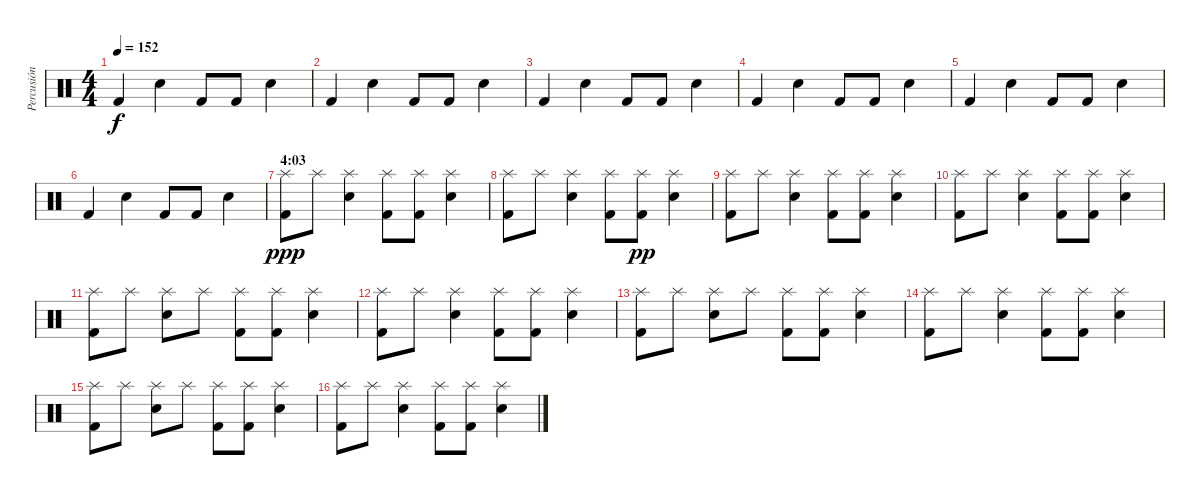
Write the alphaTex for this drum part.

\track ("Percusión" "Percusión") {instrument percussion}
\staff {score}
\articulation defaults
\ts (4 4)
\tempo 152
\clef neutral
\ks c "Kick (hit) 2".4{dy f} "Snare (hit) 2".4 "Kick (hit) 2".8 "Kick (hit) 2".8 "Snare (hit) 2".4
|
"Kick (hit) 2".4 "Snare (hit) 2".4 "Kick (hit) 2".8 "Kick (hit) 2".8 "Snare (hit) 2".4 |
"Kick (hit) 2".4 "Snare (hit) 2".4 "Kick (hit) 2".8 "Kick (hit) 2".8 "Snare (hit) 2".4 |
"Kick (hit) 2".4 "Snare (hit) 2".4 "Kick (hit) 2".8 "Kick (hit) 2".8 "Snare (hit) 2".4 |
"Kick (hit) 2".4 "Snare (hit) 2".4 "Kick (hit) 2".8 "Kick (hit) 2".8 "Snare (hit) 2".4 |
"Kick (hit) 2".4 "Snare (hit) 2".4 "Kick (hit) 2".8 "Kick (hit) 2".8 "Snare (hit) 2".4 |
\section ("" "4:03")
("Kick (hit) 2" "Splash (hit)").8{dy ppp} "Splash (hit)".8 ("Snare (hit) 2" "Splash (hit)").4 ("Kick (hit) 2" "Splash (hit)").8 ("Kick (hit) 2" "Splash (hit)").8 ("Snare (hit) 2" "Splash (hit)").4 |
("Kick (hit) 2" "Splash (hit)").8 "Splash (hit)".8 ("Snare (hit) 2" "Splash (hit)").4 ("Kick (hit) 2" "Splash (hit)").8 ("Kick (hit) 2" "Splash (hit)").8{dy pp} ("Snare (hit) 2" "Splash (hit)").4 |
("Kick (hit) 2" "Splash (hit)").8 "Splash (hit)".8 ("Snare (hit) 2" "Splash (hit)").4 ("Kick (hit) 2" "Splash (hit)").8 ("Kick (hit) 2" "Splash (hit)").8 ("Snare (hit) 2" "Splash (hit)").4 |
("Kick (hit) 2" "Splash (hit)").8 "Splash (hit)".8 ("Snare (hit) 2" "Splash (hit)").4 ("Kick (hit) 2" "Splash (hit)").8 ("Kick (hit) 2" "Splash (hit)").8 ("Snare (hit) 2" "Splash (hit)").4 |
("Kick (hit) 2" "Splash (hit)").8 "Splash (hit)".8 ("Snare (hit) 2" "Splash (hit)").8 "Splash (hit)".8 ("Kick (hit) 2" "Splash (hit)").8 ("Kick (hit) 2" "Splash (hit)").8 ("Snare (hit) 2" "Splash (hit)").4 |
("Kick (hit) 2" "Splash (hit)").8 "Splash (hit)".8 ("Snare (hit) 2" "Splash (hit)").4 ("Kick (hit) 2" "Splash (hit)").8 ("Kick (hit) 2" "Splash (hit)").8 ("Snare (hit) 2" "Splash (hit)").4 |
("Kick (hit) 2" "Splash (hit)").8 "Splash (hit)".8 ("Snare (hit) 2" "Splash (hit)").8 "Splash (hit)".8 ("Kick (hit) 2" "Splash (hit)").8 ("Kick (hit) 2" "Splash (hit)").8 ("Snare (hit) 2" "Splash (hit)").4 |
("Kick (hit) 2" "Splash (hit)").8 "Splash (hit)".8 ("Snare (hit) 2" "Splash (hit)").4 ("Kick (hit) 2" "Splash (hit)").8 ("Kick (hit) 2" "Splash (hit)").8 ("Snare (hit) 2" "Splash (hit)").4 |
("Kick (hit) 2" "Splash (hit)").8 "Splash (hit)".8 ("Snare (hit) 2" "Splash (hit)").8 "Splash (hit)".8 ("Kick (hit) 2" "Splash (hit)").8 ("Kick (hit) 2" "Splash (hit)").8 ("Snare (hit) 2" "Splash (hit)").4 |
("Kick (hit) 2" "Splash (hit)").8 "Splash (hit)".8 ("Snare (hit) 2" "Splash (hit)").4 ("Kick (hit) 2" "Splash (hit)").8 ("Kick (hit) 2" "Splash (hit)").8 ("Snare (hit) 2" "Splash (hit)").4
